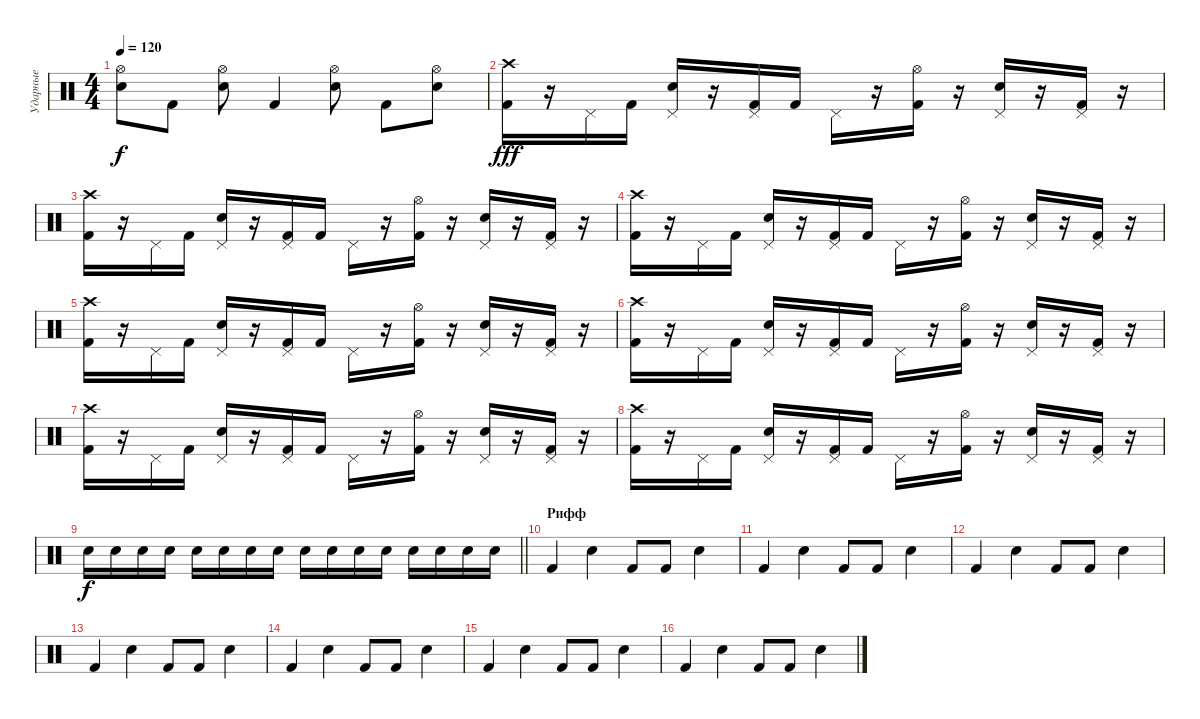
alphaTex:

\track ("Ударные" "Ударные") {instrument percussion}
\staff {score}
\articulation defaults
\ts (4 4)
\tempo 120
\clef neutral
\ks c
("Electric Snare (hit)" "Hi-Hat (open)").8{dy f} "Kick (hit) 2".8 ("Electric Snare (hit)" "Hi-Hat (open)").8 "Kick (hit) 2".4 ("Electric Snare (hit)" "Hi-Hat (open)").8 "Kick (hit) 2".8 ("Electric Snare (hit)" "Hi-Hat (open)").8 |
("Crash high (hit)" "Kick (hit) 2").16{dy fff} r.16 "Pedal Hi-Hat (hit)".16 "Kick (hit) 2".16 ("Pedal Hi-Hat (hit)" "Snare (hit) 2").16 r.16 ("Pedal Hi-Hat (hit)" "Kick (hit) 2").16 "Kick (hit) 2".16 "Pedal Hi-Hat (hit)".16 r.16 ("Hi-Hat (open)" "Kick (hit) 2").16 r.16 ("Pedal Hi-Hat (hit)" "Snare (hit) 2").16 r.16 ("Pedal Hi-Hat (hit)" "Kick (hit) 2").16 r.16 |
("Crash high (hit)" "Kick (hit) 2").16 r.16 "Pedal Hi-Hat (hit)".16 "Kick (hit) 2".16 ("Pedal Hi-Hat (hit)" "Snare (hit) 2").16 r.16 ("Pedal Hi-Hat (hit)" "Kick (hit) 2").16 "Kick (hit) 2".16 "Pedal Hi-Hat (hit)".16 r.16 ("Hi-Hat (open)" "Kick (hit) 2").16 r.16 ("Pedal Hi-Hat (hit)" "Snare (hit) 2").16 r.16 ("Pedal Hi-Hat (hit)" "Kick (hit) 2").16 r.16 |
("Crash high (hit)" "Kick (hit) 2").16 r.16 "Pedal Hi-Hat (hit)".16 "Kick (hit) 2".16 ("Pedal Hi-Hat (hit)" "Snare (hit) 2").16 r.16 ("Pedal Hi-Hat (hit)" "Kick (hit) 2").16 "Kick (hit) 2".16 "Pedal Hi-Hat (hit)".16 r.16 ("Hi-Hat (open)" "Kick (hit) 2").16 r.16 ("Pedal Hi-Hat (hit)" "Snare (hit) 2").16 r.16 ("Pedal Hi-Hat (hit)" "Kick (hit) 2").16 r.16 |
("Crash high (hit)" "Kick (hit) 2").16 r.16 "Pedal Hi-Hat (hit)".16 "Kick (hit) 2".16 ("Pedal Hi-Hat (hit)" "Snare (hit) 2").16 r.16 ("Pedal Hi-Hat (hit)" "Kick (hit) 2").16 "Kick (hit) 2".16 "Pedal Hi-Hat (hit)".16 r.16 ("Hi-Hat (open)" "Kick (hit) 2").16 r.16 ("Pedal Hi-Hat (hit)" "Snare (hit) 2").16 r.16 ("Pedal Hi-Hat (hit)" "Kick (hit) 2").16 r.16 |
("Crash high (hit)" "Kick (hit) 2").16 r.16 "Pedal Hi-Hat (hit)".16 "Kick (hit) 2".16 ("Pedal Hi-Hat (hit)" "Snare (hit) 2").16 r.16 ("Pedal Hi-Hat (hit)" "Kick (hit) 2").16 "Kick (hit) 2".16 "Pedal Hi-Hat (hit)".16 r.16 ("Hi-Hat (open)" "Kick (hit) 2").16 r.16 ("Pedal Hi-Hat (hit)" "Snare (hit) 2").16 r.16 ("Pedal Hi-Hat (hit)" "Kick (hit) 2").16 r.16 |
("Crash high (hit)" "Kick (hit) 2").16 r.16 "Pedal Hi-Hat (hit)".16 "Kick (hit) 2".16 ("Pedal Hi-Hat (hit)" "Snare (hit) 2").16 r.16 ("Pedal Hi-Hat (hit)" "Kick (hit) 2").16 "Kick (hit) 2".16 "Pedal Hi-Hat (hit)".16 r.16 ("Hi-Hat (open)" "Kick (hit) 2").16 r.16 ("Pedal Hi-Hat (hit)" "Snare (hit) 2").16 r.16 ("Pedal Hi-Hat (hit)" "Kick (hit) 2").16 r.16 |
("Crash high (hit)" "Kick (hit) 2").16 r.16 "Pedal Hi-Hat (hit)".16 "Kick (hit) 2".16 ("Pedal Hi-Hat (hit)" "Snare (hit) 2").16 r.16 ("Pedal Hi-Hat (hit)" "Kick (hit) 2").16 "Kick (hit) 2".16 "Pedal Hi-Hat (hit)".16 r.16 ("Hi-Hat (open)" "Kick (hit) 2").16 r.16 ("Pedal Hi-Hat (hit)" "Snare (hit) 2").16 r.16 ("Pedal Hi-Hat (hit)" "Kick (hit) 2").16 r.16 |
\barLineRight lightlight "Snare (hit) 2".16{dy f} "Snare (hit) 2".16 "Snare (hit) 2".16 "Snare (hit) 2".16 "Snare (hit) 2".16 "Snare (hit) 2".16 "Snare (hit) 2".16 "Snare (hit) 2".16 "Snare (hit) 2".16 "Snare (hit) 2".16 "Snare (hit) 2".16 "Snare (hit) 2".16 "Snare (hit) 2".16 "Snare (hit) 2".16 "Snare (hit) 2".16 "Snare (hit) 2".16
|
\section ("" "Рифф")
"Kick (hit) 2".4 "Snare (hit) 2".4 "Kick (hit) 2".8 "Kick (hit) 2".8 "Snare (hit) 2".4 |
"Kick (hit) 2".4 "Snare (hit) 2".4 "Kick (hit) 2".8 "Kick (hit) 2".8 "Snare (hit) 2".4 |
"Kick (hit) 2".4 "Snare (hit) 2".4 "Kick (hit) 2".8 "Kick (hit) 2".8 "Snare (hit) 2".4 |
"Kick (hit) 2".4 "Snare (hit) 2".4 "Kick (hit) 2".8 "Kick (hit) 2".8 "Snare (hit) 2".4 |
"Kick (hit) 2".4 "Snare (hit) 2".4 "Kick (hit) 2".8 "Kick (hit) 2".8 "Snare (hit) 2".4 |
"Kick (hit) 2".4 "Snare (hit) 2".4 "Kick (hit) 2".8 "Kick (hit) 2".8 "Snare (hit) 2".4 |
"Kick (hit) 2".4 "Snare (hit) 2".4 "Kick (hit) 2".8 "Kick (hit) 2".8 "Snare (hit) 2".4
